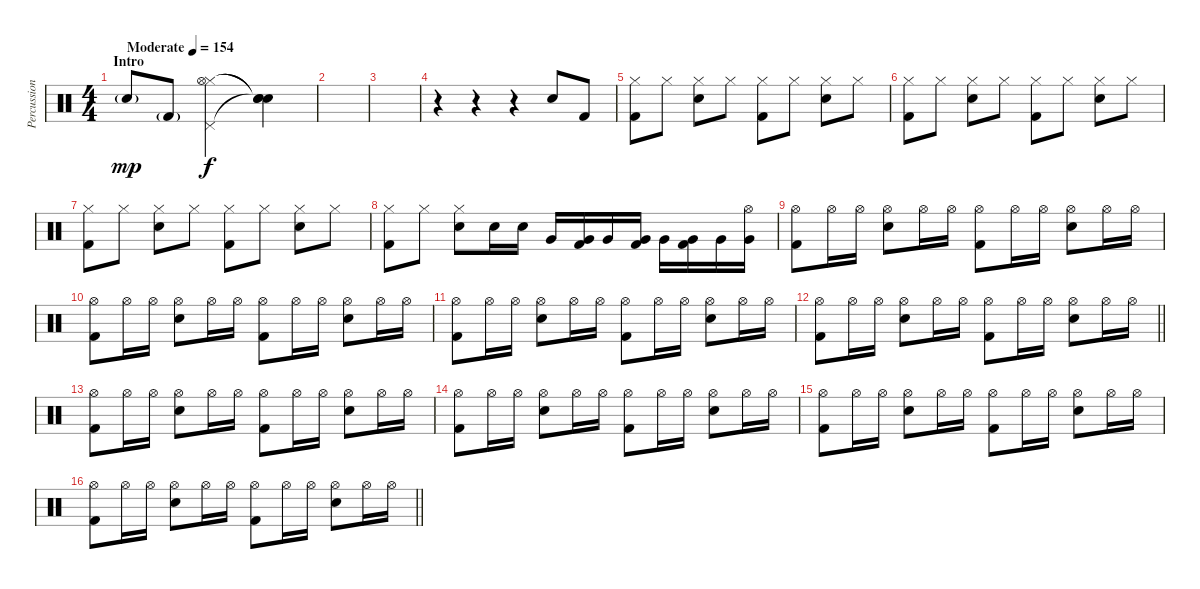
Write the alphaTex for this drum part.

\track ("Percussion" "Percussion") {instrument percussion}
\staff {score}
\articulation defaults
\ts (4 4)
\section ("" "Intro")
\tempo (154 "Moderate")
\clef neutral
\ks c "Snare (hit) 2"{g}.8{dy mp} "Kick (hit) 2"{g}.8
("Hi-Hat (closed)" "Pedal Hi-Hat (hit)" "Hi-Hat (open)").2{dy f} ("Snare (hit)"{t} "Snare (hit)"{t} "Snare (hit)"{t}).4 |
|
|
r.4 r.4 r.4 "Snare (hit) 2".8 "Kick (hit) 2".8 |
("Hi-Hat (closed)" "Kick (hit) 2").8 "Hi-Hat (closed)".8 ("Hi-Hat (closed)" "Snare (hit) 2").8 "Hi-Hat (closed)".8 ("Hi-Hat (closed)" "Kick (hit) 2").8 "Hi-Hat (closed)".8 ("Hi-Hat (closed)" "Electric Snare (hit)").8 "Hi-Hat (closed)".8 |
("Hi-Hat (closed)" "Kick (hit) 2").8 "Hi-Hat (closed)".8 ("Hi-Hat (closed)" "Snare (hit) 2").8 "Hi-Hat (closed)".8 ("Hi-Hat (closed)" "Kick (hit) 2").8 "Hi-Hat (closed)".8 ("Hi-Hat (closed)" "Electric Snare (hit)").8 "Hi-Hat (closed)".8 |
("Hi-Hat (closed)" "Kick (hit) 2").8 "Hi-Hat (closed)".8 ("Hi-Hat (closed)" "Snare (hit) 2").8 "Hi-Hat (closed)".8 ("Hi-Hat (closed)" "Kick (hit) 2").8 "Hi-Hat (closed)".8 ("Hi-Hat (closed)" "Electric Snare (hit)").8 "Hi-Hat (closed)".8 |
("Hi-Hat (closed)" "Kick (hit) 2").8 "Hi-Hat (closed)".8 ("Hi-Hat (closed)" "Snare (hit) 2").8 "Snare (hit) 2".16 "Snare (hit) 2".16 "Very Low Tom (hit)".16 ("Kick (hit) 2" "Very Low Tom (hit)").16 "Very Low Tom (hit)".16 ("Kick (hit) 2" "Very Low Tom (hit)").16 "Very Low Tom (hit)".16 ("Kick (hit) 2" "Very Low Tom (hit)").16 "Very Low Tom (hit)".16 ("Hi-Hat (open)" "Very Low Tom (hit)").16 |
("Hi-Hat (open)" "Kick (hit) 2").8 "Hi-Hat (open)".16 "Hi-Hat (open)".16 ("Hi-Hat (open)" "Snare (hit) 2").8 "Hi-Hat (open)".16 "Hi-Hat (open)".16 ("Hi-Hat (open)" "Kick (hit) 2").8 "Hi-Hat (open)".16 "Hi-Hat (open)".16 ("Hi-Hat (open)" "Snare (hit) 2").8 "Hi-Hat (open)".16 "Hi-Hat (open)".16 |
("Hi-Hat (open)" "Kick (hit) 2").8 "Hi-Hat (open)".16 "Hi-Hat (open)".16 ("Hi-Hat (open)" "Snare (hit) 2").8 "Hi-Hat (open)".16 "Hi-Hat (open)".16 ("Hi-Hat (open)" "Kick (hit) 2").8 "Hi-Hat (open)".16 "Hi-Hat (open)".16 ("Hi-Hat (open)" "Snare (hit) 2").8 "Hi-Hat (open)".16 "Hi-Hat (open)".16 |
("Hi-Hat (open)" "Kick (hit) 2").8 "Hi-Hat (open)".16 "Hi-Hat (open)".16 ("Hi-Hat (open)" "Snare (hit) 2").8 "Hi-Hat (open)".16 "Hi-Hat (open)".16 ("Hi-Hat (open)" "Kick (hit) 2").8 "Hi-Hat (open)".16 "Hi-Hat (open)".16 ("Hi-Hat (open)" "Snare (hit) 2").8 "Hi-Hat (open)".16 "Hi-Hat (open)".16 |
\barLineRight lightlight
("Hi-Hat (open)" "Kick (hit) 2").8 "Hi-Hat (open)".16 "Hi-Hat (open)".16 ("Hi-Hat (open)" "Snare (hit) 2").8 "Hi-Hat (open)".16 "Hi-Hat (open)".16 ("Hi-Hat (open)" "Kick (hit) 2").8 "Hi-Hat (open)".16 "Hi-Hat (open)".16 ("Hi-Hat (open)" "Snare (hit) 2").8 "Hi-Hat (open)".16 "Hi-Hat (open)".16 |
("Hi-Hat (open)" "Kick (hit) 2").8 "Hi-Hat (open)".16 "Hi-Hat (open)".16 ("Hi-Hat (open)" "Snare (hit) 2").8 "Hi-Hat (open)".16 "Hi-Hat (open)".16 ("Hi-Hat (open)" "Kick (hit) 2").8 "Hi-Hat (open)".16 "Hi-Hat (open)".16 ("Hi-Hat (open)" "Snare (hit) 2").8 "Hi-Hat (open)".16 "Hi-Hat (open)".16 |
("Hi-Hat (open)" "Kick (hit) 2").8 "Hi-Hat (open)".16 "Hi-Hat (open)".16 ("Hi-Hat (open)" "Snare (hit) 2").8 "Hi-Hat (open)".16 "Hi-Hat (open)".16 ("Hi-Hat (open)" "Kick (hit) 2").8 "Hi-Hat (open)".16 "Hi-Hat (open)".16 ("Hi-Hat (open)" "Snare (hit) 2").8 "Hi-Hat (open)".16 "Hi-Hat (open)".16 |
("Hi-Hat (open)" "Kick (hit) 2").8 "Hi-Hat (open)".16 "Hi-Hat (open)".16 ("Hi-Hat (open)" "Snare (hit) 2").8 "Hi-Hat (open)".16 "Hi-Hat (open)".16 ("Hi-Hat (open)" "Kick (hit) 2").8 "Hi-Hat (open)".16 "Hi-Hat (open)".16 ("Hi-Hat (open)" "Snare (hit) 2").8 "Hi-Hat (open)".16 "Hi-Hat (open)".16 |
\barLineRight lightlight
("Hi-Hat (open)" "Kick (hit) 2").8 "Hi-Hat (open)".16 "Hi-Hat (open)".16 ("Hi-Hat (open)" "Snare (hit) 2").8 "Hi-Hat (open)".16 "Hi-Hat (open)".16 ("Hi-Hat (open)" "Kick (hit) 2").8 "Hi-Hat (open)".16 "Hi-Hat (open)".16 ("Hi-Hat (open)" "Snare (hit) 2").8 "Hi-Hat (open)".16 "Hi-Hat (open)".16
